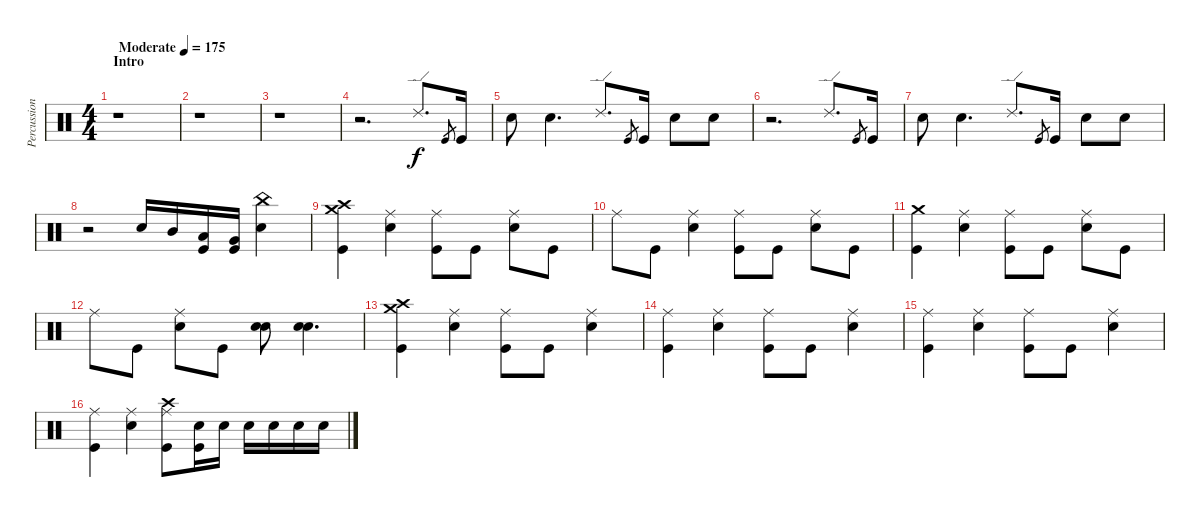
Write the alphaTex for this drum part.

\track ("Percussion" "Percussion") {instrument percussion}
\staff {score}
\articulation defaults
\ts (4 4)
\section ("" "Intro")
\tempo (175 "Moderate")
\clef neutral
\ks c
r.1{dy f} |
r.1 |
r.1 |
r.2{d} "Ride (edge) 2".8{d} "Kick (hit)".8{gr} "Kick (hit)".16 |
"Electric Snare (hit)".8 "Electric Snare (hit)".4{d} "Ride (edge) 2".8{d} "Kick (hit)".8{gr} "Kick (hit)".16 "Electric Snare (hit)".8 "Electric Snare (hit)".8 |
r.2{d} "Ride (edge) 2".8{d} "Kick (hit)".8{gr} "Kick (hit)".16 |
"Electric Snare (hit)".8 "Electric Snare (hit)".4{d} "Ride (edge) 2".8{d} "Kick (hit)".8{gr} "Kick (hit)".16 "Electric Snare (hit)".8 "Electric Snare (hit)".8 |
r.2 "Electric Snare (hit)".16 "Mid Tom (hit)".16 ("Low Tom (hit)" "Kick (hit)").16 ("Very Low Tom (hit)" "Kick (hit)").16 ("China (hit)" "Electric Snare (hit)").4 |
("Crash medium (hit)" "Crash high (hit)" "Kick (hit)").4 ("Ride (middle)" "Electric Snare (hit)").4 ("Ride (middle)" "Kick (hit)").8 "Kick (hit)".8 ("Ride (middle)" "Electric Snare (hit)").8 "Kick (hit)".8 |
"Ride (middle)".8 "Kick (hit)".8 ("Ride (middle)" "Electric Snare (hit)").4 ("Ride (middle)" "Kick (hit)").8 "Kick (hit)".8 ("Ride (middle)" "Electric Snare (hit)").8 "Kick (hit)".8 |
("Crash medium (hit)" "Kick (hit)").4 ("Ride (middle)" "Electric Snare (hit)").4 ("Ride (middle)" "Kick (hit)").8 "Kick (hit)".8 ("Ride (middle)" "Electric Snare (hit)").8 "Kick (hit)".8 |
"Ride (middle)".8 "Kick (hit)".8 ("Ride (middle)" "Electric Snare (hit)").8 "Kick (hit)".8 ("Electric Snare (hit)" "Electric Snare (hit)").8 ("Electric Snare (hit)" "Electric Snare (hit)").4{d} |
("Crash high (hit)" "Crash medium (hit)" "Kick (hit)").4 ("Ride (middle)" "Electric Snare (hit)").4 ("Ride (middle)" "Kick (hit)").8 "Kick (hit)".8 ("Ride (middle)" "Electric Snare (hit)").4 |
("Ride (middle)" "Kick (hit)").4 ("Ride (middle)" "Electric Snare (hit)").4 ("Ride (middle)" "Kick (hit)").8 "Kick (hit)".8 ("Ride (middle)" "Electric Snare (hit)").4 |
("Ride (middle)" "Kick (hit)").4 ("Ride (middle)" "Electric Snare (hit)").4 ("Ride (middle)" "Kick (hit)").8 "Kick (hit)".8 ("Ride (middle)" "Electric Snare (hit)").4 |
("Ride (middle)" "Kick (hit)").4 ("Ride (middle)" "Electric Snare (hit)").4 ("Crash high (hit)" "Ride (middle)" "Kick (hit)").8 ("Electric Snare (hit)" "Kick (hit)").16 "Electric Snare (hit)".16 "Electric Snare (hit)".16 "Electric Snare (hit)".16 "Electric Snare (hit)".16 "Electric Snare (hit)".16
